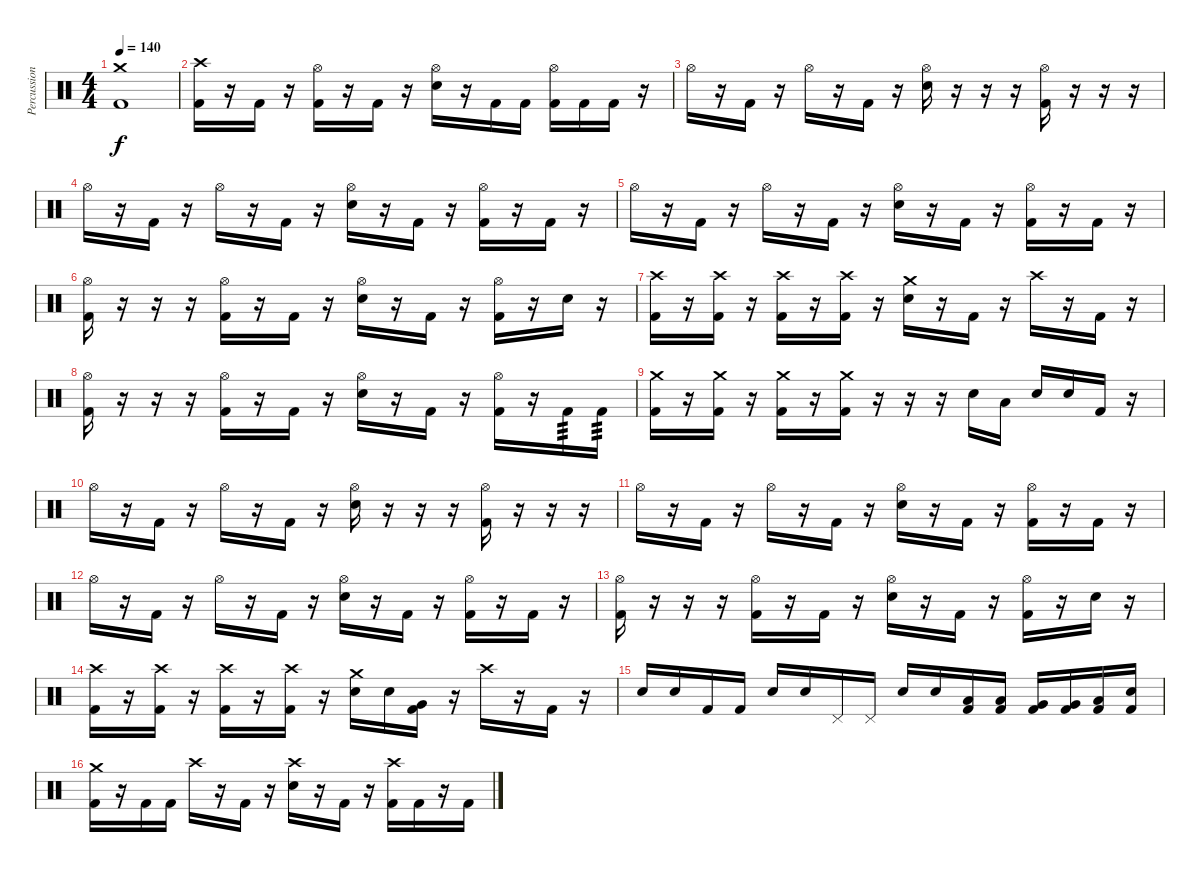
\track ("Percussion" "Percussion") {instrument percussion}
\staff {score}
\articulation defaults
\ts (4 4)
\tempo 140
\clef neutral
\ks c
("Crash medium (hit)" "Kick (hit) 2").1{dy f} |
("Crash high (hit)" "Kick (hit) 2").16 r.16 "Kick (hit) 2".16 r.16 ("Hi-Hat (open)" "Kick (hit) 2").16 r.16 "Kick (hit) 2".16 r.16 ("Hi-Hat (open)" "Snare (hit) 2").16 r.16 "Kick (hit) 2".16 "Kick (hit) 2".16 ("Hi-Hat (open)" "Kick (hit) 2").16 "Kick (hit) 2".16 "Kick (hit) 2".16 r.16 |
"Hi-Hat (open)".16 r.16 "Kick (hit) 2".16 r.16 "Hi-Hat (open)".16 r.16 "Kick (hit) 2".16 r.16 ("Hi-Hat (open)" "Snare (hit) 2").16 r.16 r.16 r.16 ("Hi-Hat (open)" "Kick (hit) 2").16 r.16 r.16 r.16 |
"Hi-Hat (open)".16 r.16 "Kick (hit) 2".16 r.16 "Hi-Hat (open)".16 r.16 "Kick (hit) 2".16 r.16 ("Hi-Hat (open)" "Snare (hit) 2").16 r.16 "Kick (hit) 2".16 r.16 ("Hi-Hat (open)" "Kick (hit) 2").16 r.16 "Kick (hit) 2".16 r.16 |
"Hi-Hat (open)".16 r.16 "Kick (hit) 2".16 r.16 "Hi-Hat (open)".16 r.16 "Kick (hit) 2".16 r.16 ("Hi-Hat (open)" "Snare (hit) 2").16 r.16 "Kick (hit) 2".16 r.16 ("Hi-Hat (open)" "Kick (hit) 2").16 r.16 "Kick (hit) 2".16 r.16 |
("Hi-Hat (open)" "Kick (hit) 2").16 r.16 r.16 r.16 ("Hi-Hat (open)" "Kick (hit) 2").16 r.16 "Kick (hit) 2".16 r.16 ("Hi-Hat (open)" "Snare (hit) 2").16 r.16 "Kick (hit) 2".16 r.16 ("Hi-Hat (open)" "Kick (hit) 2").16 r.16 "Snare (hit) 2".16 r.16 |
("Crash high (hit)" "Kick (hit) 2").16 r.16 ("Crash high (hit)" "Kick (hit) 2").16 r.16 ("Crash high (hit)" "Kick (hit) 2").16 r.16 ("Crash high (hit)" "Kick (hit) 2").16 r.16 ("Crash medium (hit)" "Snare (hit) 2").16 r.16 "Kick (hit) 2".16 r.16 "Crash high (hit)".16 r.16 "Kick (hit) 2".16 r.16 |
("Hi-Hat (open)" "Kick (hit) 2").16 r.16 r.16 r.16 ("Hi-Hat (open)" "Kick (hit) 2").16 r.16 "Kick (hit) 2".16 r.16 ("Hi-Hat (open)" "Snare (hit) 2").16 r.16 "Kick (hit) 2".16 r.16 ("Hi-Hat (open)" "Kick (hit) 2").16 r.16 "Kick (hit) 2".16{tp 3} "Kick (hit) 2".16{tp 3} |
("Crash medium (hit)" "Kick (hit) 2").16 r.16 ("Crash medium (hit)" "Kick (hit) 2").16 r.16 ("Crash medium (hit)" "Kick (hit) 2").16 r.16 ("Crash medium (hit)" "Kick (hit) 2").16 r.16 r.16 r.16 "Snare (hit) 2".16 "Low Tom (hit)".16 "Snare (hit) 2".16 "Snare (hit) 2".16 "Kick (hit) 2".16 r.16 |
"Hi-Hat (open)".16 r.16 "Kick (hit) 2".16 r.16 "Hi-Hat (open)".16 r.16 "Kick (hit) 2".16 r.16 ("Hi-Hat (open)" "Snare (hit) 2").16 r.16 r.16 r.16 ("Hi-Hat (open)" "Kick (hit) 2").16 r.16 r.16 r.16 |
"Hi-Hat (open)".16 r.16 "Kick (hit) 2".16 r.16 "Hi-Hat (open)".16 r.16 "Kick (hit) 2".16 r.16 ("Hi-Hat (open)" "Snare (hit) 2").16 r.16 "Kick (hit) 2".16 r.16 ("Hi-Hat (open)" "Kick (hit) 2").16 r.16 "Kick (hit) 2".16 r.16 |
"Hi-Hat (open)".16 r.16 "Kick (hit) 2".16 r.16 "Hi-Hat (open)".16 r.16 "Kick (hit) 2".16 r.16 ("Hi-Hat (open)" "Snare (hit) 2").16 r.16 "Kick (hit) 2".16 r.16 ("Hi-Hat (open)" "Kick (hit) 2").16 r.16 "Kick (hit) 2".16 r.16 |
("Hi-Hat (open)" "Kick (hit) 2").16 r.16 r.16 r.16 ("Hi-Hat (open)" "Kick (hit) 2").16 r.16 "Kick (hit) 2".16 r.16 ("Hi-Hat (open)" "Snare (hit) 2").16 r.16 "Kick (hit) 2".16 r.16 ("Hi-Hat (open)" "Kick (hit) 2").16 r.16 "Snare (hit) 2".16 r.16 |
("Crash high (hit)" "Kick (hit) 2").16 r.16 ("Crash high (hit)" "Kick (hit) 2").16 r.16 ("Crash high (hit)" "Kick (hit) 2").16 r.16 ("Crash high (hit)" "Kick (hit) 2").16 r.16 ("Crash medium (hit)" "Snare (hit) 2").16 "Snare (hit) 2".16 ("Very Low Tom (hit)" "Kick (hit) 2").16 r.16 "Crash high (hit)".16 r.16 "Kick (hit) 2".16 r.16 |
"Snare (hit) 2".16 "Snare (hit) 2".16 "Kick (hit) 2".16 "Kick (hit) 2".16 "Snare (hit) 2".16 "Snare (hit) 2".16 "Pedal Hi-Hat (hit)".16 "Pedal Hi-Hat (hit)".16 "Snare (hit) 2".16 "Snare (hit) 2".16 ("Low Tom (hit)" "Kick (hit) 2").16 ("Low Tom (hit)" "Kick (hit) 2").16 ("Very Low Tom (hit)" "Kick (hit) 2").16 ("Very Low Tom (hit)" "Kick (hit) 2").16 ("Low Floor Tom (hit)" "Kick (hit) 2").16 ("Snare (hit)" "Kick (hit) 2").16 |
("Crash medium (hit)" "Kick (hit) 2").16 r.16 "Kick (hit) 2".16 "Kick (hit) 2".16 "Crash high (hit)".16 r.16 "Kick (hit) 2".16 r.16 ("Crash high (hit)" "Snare (hit) 2").16 r.16 "Kick (hit) 2".16 r.16 ("Crash high (hit)" "Kick (hit) 2").16 "Kick (hit) 2".16 r.16 "Kick (hit) 2".16
